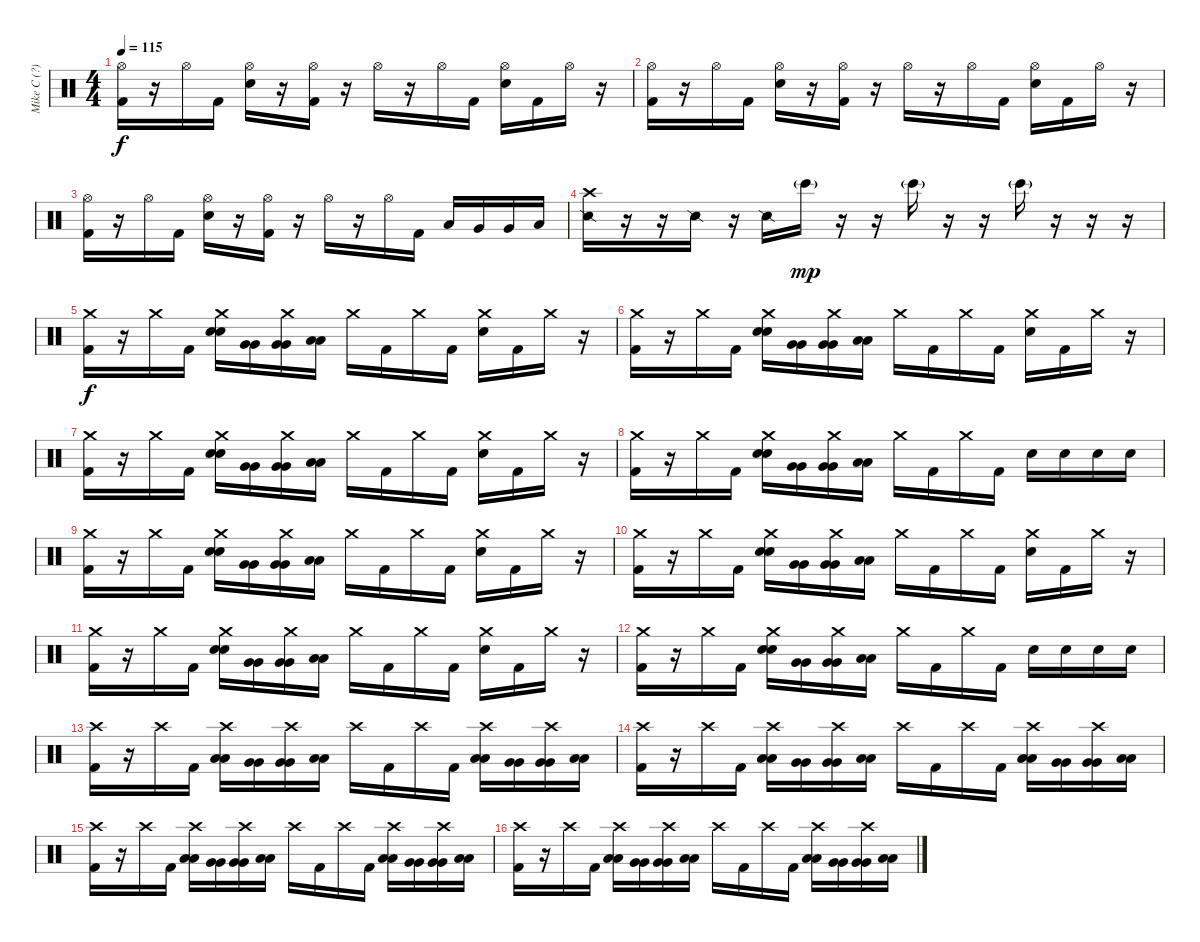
\track ("Mike C (?)" "Mike C (?)") {instrument percussion}
\staff {score}
\articulation defaults
\ts (4 4)
\tempo 115
\clef neutral
\ks c
("Hi-Hat (open)" "Kick (hit) 2").16{dy f} r.16 "Hi-Hat (open)".16 "Kick (hit) 2".16 ("Hi-Hat (open)" "Snare (hit) 2").16 r.16 ("Hi-Hat (open)" "Kick (hit) 2").16 r.16 "Hi-Hat (open)".16 r.16 "Hi-Hat (open)".16 "Kick (hit) 2".16 ("Hi-Hat (open)" "Snare (hit) 2").16 "Kick (hit) 2".16 "Hi-Hat (open)".16 r.16 |
("Hi-Hat (open)" "Kick (hit) 2").16 r.16 "Hi-Hat (open)".16 "Kick (hit) 2".16 ("Hi-Hat (open)" "Snare (hit) 2").16 r.16 ("Hi-Hat (open)" "Kick (hit) 2").16 r.16 "Hi-Hat (open)".16 r.16 "Hi-Hat (open)".16 "Kick (hit) 2".16 ("Hi-Hat (open)" "Snare (hit) 2").16 "Kick (hit) 2".16 "Hi-Hat (open)".16 r.16 |
("Hi-Hat (open)" "Kick (hit) 2").16 r.16 "Hi-Hat (open)".16 "Kick (hit) 2".16 ("Hi-Hat (open)" "Snare (hit) 2").16 r.16 ("Hi-Hat (open)" "Kick (hit) 2").16 r.16 "Hi-Hat (open)".16 r.16 "Hi-Hat (open)".16 "Kick (hit) 2".16 "Low Tom (hit)".16 "Very Low Tom (hit)".16 "Very Low Tom (hit)".16 "Low Floor Tom (hit)".16 |
("Crash high (hit)" "Snare (side stick) 2").16 r.16 r.16 "Snare (side stick) 2".16 r.16 "Snare (side stick) 2".16 "Bongo High (hit)"{g}.16{dy mp} r.16 r.16 "Bongo High (hit)"{g}.16 r.16 r.16 "Bongo High (hit)"{g}.16 r.16 r.16 r.16 |
("Crash medium (hit)" "Kick (hit) 2").16{dy f} r.16 "Crash medium (hit)".16 "Kick (hit) 2".16 ("Crash medium (hit)" "Snare (hit) 2" "Snare (hit) 2").16 ("Very Low Tom (hit)" "Very Low Tom (hit)").16 ("Crash medium (hit)" "Very Low Tom (hit)" "Very Low Tom (hit)").16 ("Low Floor Tom (hit)" "Low Floor Tom (hit)").16 "Crash medium (hit)".16 "Kick (hit) 2".16 "Crash medium (hit)".16 "Kick (hit) 2".16 ("Crash medium (hit)" "Snare (hit) 2").16 "Kick (hit) 2".16 "Crash medium (hit)".16 r.16 |
("Crash medium (hit)" "Kick (hit) 2").16 r.16 "Crash medium (hit)".16 "Kick (hit) 2".16 ("Crash medium (hit)" "Snare (hit) 2" "Snare (hit) 2").16 ("Very Low Tom (hit)" "Very Low Tom (hit)").16 ("Crash medium (hit)" "Very Low Tom (hit)" "Very Low Tom (hit)").16 ("Low Floor Tom (hit)" "Low Floor Tom (hit)").16 "Crash medium (hit)".16 "Kick (hit) 2".16 "Crash medium (hit)".16 "Kick (hit) 2".16 ("Crash medium (hit)" "Snare (hit) 2").16 "Kick (hit) 2".16 "Crash medium (hit)".16 r.16 |
("Crash medium (hit)" "Kick (hit) 2").16 r.16 "Crash medium (hit)".16 "Kick (hit) 2".16 ("Crash medium (hit)" "Snare (hit) 2" "Snare (hit) 2").16 ("Very Low Tom (hit)" "Very Low Tom (hit)").16 ("Crash medium (hit)" "Very Low Tom (hit)" "Very Low Tom (hit)").16 ("Low Floor Tom (hit)" "Low Floor Tom (hit)").16 "Crash medium (hit)".16 "Kick (hit) 2".16 "Crash medium (hit)".16 "Kick (hit) 2".16 ("Crash medium (hit)" "Snare (hit) 2").16 "Kick (hit) 2".16 "Crash medium (hit)".16 r.16 |
("Crash medium (hit)" "Kick (hit) 2").16 r.16 "Crash medium (hit)".16 "Kick (hit) 2".16 ("Crash medium (hit)" "Snare (hit) 2" "Snare (hit) 2").16 ("Very Low Tom (hit)" "Very Low Tom (hit)").16 ("Crash medium (hit)" "Very Low Tom (hit)" "Very Low Tom (hit)").16 ("Low Floor Tom (hit)" "Low Floor Tom (hit)").16 "Crash medium (hit)".16 "Kick (hit) 2".16 "Crash medium (hit)".16 "Kick (hit) 2".16 "Snare (hit) 2".16 "Snare (hit) 2".16 "Snare (hit) 2".16 "Snare (hit) 2".16 |
("Crash medium (hit)" "Kick (hit) 2").16 r.16 "Crash medium (hit)".16 "Kick (hit) 2".16 ("Crash medium (hit)" "Snare (hit) 2" "Snare (hit) 2").16 ("Very Low Tom (hit)" "Very Low Tom (hit)").16 ("Crash medium (hit)" "Very Low Tom (hit)" "Very Low Tom (hit)").16 ("Low Floor Tom (hit)" "Low Floor Tom (hit)").16 "Crash medium (hit)".16 "Kick (hit) 2".16 "Crash medium (hit)".16 "Kick (hit) 2".16 ("Crash medium (hit)" "Snare (hit) 2").16 "Kick (hit) 2".16 "Crash medium (hit)".16 r.16 |
("Crash medium (hit)" "Kick (hit) 2").16 r.16 "Crash medium (hit)".16 "Kick (hit) 2".16 ("Crash medium (hit)" "Snare (hit) 2" "Snare (hit) 2").16 ("Very Low Tom (hit)" "Very Low Tom (hit)").16 ("Crash medium (hit)" "Very Low Tom (hit)" "Very Low Tom (hit)").16 ("Low Floor Tom (hit)" "Low Floor Tom (hit)").16 "Crash medium (hit)".16 "Kick (hit) 2".16 "Crash medium (hit)".16 "Kick (hit) 2".16 ("Crash medium (hit)" "Snare (hit) 2").16 "Kick (hit) 2".16 "Crash medium (hit)".16 r.16 |
("Crash medium (hit)" "Kick (hit) 2").16 r.16 "Crash medium (hit)".16 "Kick (hit) 2".16 ("Crash medium (hit)" "Snare (hit) 2" "Snare (hit) 2").16 ("Very Low Tom (hit)" "Very Low Tom (hit)").16 ("Crash medium (hit)" "Very Low Tom (hit)" "Very Low Tom (hit)").16 ("Low Floor Tom (hit)" "Low Floor Tom (hit)").16 "Crash medium (hit)".16 "Kick (hit) 2".16 "Crash medium (hit)".16 "Kick (hit) 2".16 ("Crash medium (hit)" "Snare (hit) 2").16 "Kick (hit) 2".16 "Crash medium (hit)".16 r.16 |
("Crash medium (hit)" "Kick (hit) 2").16 r.16 "Crash medium (hit)".16 "Kick (hit) 2".16 ("Crash medium (hit)" "Snare (hit) 2" "Snare (hit) 2").16 ("Very Low Tom (hit)" "Very Low Tom (hit)").16 ("Crash medium (hit)" "Very Low Tom (hit)" "Very Low Tom (hit)").16 ("Low Floor Tom (hit)" "Low Floor Tom (hit)").16 "Crash medium (hit)".16 "Kick (hit) 2".16 "Crash medium (hit)".16 "Kick (hit) 2".16 "Snare (hit) 2".16 "Snare (hit) 2".16 "Snare (hit) 2".16 "Snare (hit) 2".16 |
("Crash high (hit)" "Kick (hit) 2").16 r.16 "Crash high (hit)".16 "Kick (hit) 2".16 ("Crash high (hit)" "Low Tom (hit)" "Low Tom (hit)").16 ("Very Low Tom (hit)" "Very Low Tom (hit)").16 ("Crash high (hit)" "Very Low Tom (hit)" "Very Low Tom (hit)").16 ("Low Floor Tom (hit)" "Low Floor Tom (hit)").16 "Crash high (hit)".16 "Kick (hit) 2".16 "Crash high (hit)".16 "Kick (hit) 2".16 ("Crash high (hit)" "Low Tom (hit)" "Low Tom (hit)").16 ("Very Low Tom (hit)" "Very Low Tom (hit)").16 ("Crash high (hit)" "Very Low Tom (hit)" "Very Low Tom (hit)").16 ("Low Floor Tom (hit)" "Low Floor Tom (hit)").16 |
("Crash high (hit)" "Kick (hit) 2").16 r.16 "Crash high (hit)".16 "Kick (hit) 2".16 ("Crash high (hit)" "Low Tom (hit)" "Low Tom (hit)").16 ("Very Low Tom (hit)" "Very Low Tom (hit)").16 ("Crash high (hit)" "Very Low Tom (hit)" "Very Low Tom (hit)").16 ("Low Floor Tom (hit)" "Low Floor Tom (hit)").16 "Crash high (hit)".16 "Kick (hit) 2".16 "Crash high (hit)".16 "Kick (hit) 2".16 ("Crash high (hit)" "Low Tom (hit)" "Low Tom (hit)").16 ("Very Low Tom (hit)" "Very Low Tom (hit)").16 ("Crash high (hit)" "Very Low Tom (hit)" "Very Low Tom (hit)").16 ("Low Floor Tom (hit)" "Low Floor Tom (hit)").16 |
("Crash high (hit)" "Kick (hit) 2").16 r.16 "Crash high (hit)".16 "Kick (hit) 2".16 ("Crash high (hit)" "Low Tom (hit)" "Low Tom (hit)").16 ("Very Low Tom (hit)" "Very Low Tom (hit)").16 ("Crash high (hit)" "Very Low Tom (hit)" "Very Low Tom (hit)").16 ("Low Floor Tom (hit)" "Low Floor Tom (hit)").16 "Crash high (hit)".16 "Kick (hit) 2".16 "Crash high (hit)".16 "Kick (hit) 2".16 ("Crash high (hit)" "Low Tom (hit)" "Low Tom (hit)").16 ("Very Low Tom (hit)" "Very Low Tom (hit)").16 ("Crash high (hit)" "Very Low Tom (hit)" "Very Low Tom (hit)").16 ("Low Floor Tom (hit)" "Low Floor Tom (hit)").16 |
("Crash high (hit)" "Kick (hit) 2").16 r.16 "Crash high (hit)".16 "Kick (hit) 2".16 ("Crash high (hit)" "Low Tom (hit)" "Low Tom (hit)").16 ("Very Low Tom (hit)" "Very Low Tom (hit)").16 ("Crash high (hit)" "Very Low Tom (hit)" "Very Low Tom (hit)").16 ("Low Floor Tom (hit)" "Low Floor Tom (hit)").16 "Crash high (hit)".16 "Kick (hit) 2".16 "Crash high (hit)".16 "Kick (hit) 2".16 ("Crash high (hit)" "Low Tom (hit)" "Low Tom (hit)").16 ("Very Low Tom (hit)" "Very Low Tom (hit)").16 ("Crash high (hit)" "Very Low Tom (hit)" "Very Low Tom (hit)").16 ("Low Floor Tom (hit)" "Low Floor Tom (hit)").16
